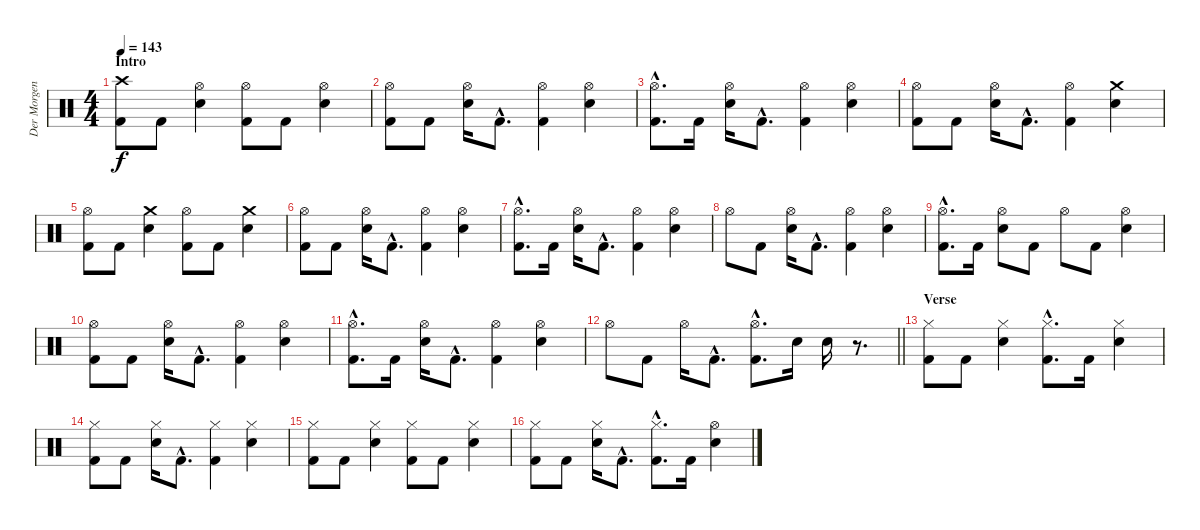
\track ("Der Morgenstern" "Der Morgen") {instrument percussion}
\staff {score}
\articulation defaults
\ts (4 4)
\section ("" "Intro")
\tempo 143
\clef neutral
\ks c
("Crash high (hit)" "Kick (hit) 2").8{dy f} "Kick (hit) 2".8 ("Hi-Hat (open)" "Electric Snare (hit)").4 ("Hi-Hat (open)" "Kick (hit) 2").8 "Kick (hit) 2".8 ("Hi-Hat (open)" "Electric Snare (hit)").4 |
("Hi-Hat (open)" "Kick (hit) 2").8 "Kick (hit) 2".8 ("Hi-Hat (open)" "Electric Snare (hit)").16 "Kick (hit) 2"{hac}.8{d} ("Hi-Hat (open)" "Kick (hit) 2").4 ("Hi-Hat (open)" "Electric Snare (hit)").4 |
("Hi-Hat (open)"{hac} "Kick (hit) 2"{hac}).8{d} "Kick (hit) 2".16 ("Hi-Hat (open)" "Electric Snare (hit)").16 "Kick (hit) 2"{hac}.8{d} ("Hi-Hat (open)" "Kick (hit) 2").4 ("Hi-Hat (open)" "Electric Snare (hit)").4 |
("Hi-Hat (open)" "Kick (hit) 2").8 "Kick (hit) 2".8 ("Hi-Hat (open)" "Electric Snare (hit)").16 "Kick (hit) 2"{hac}.8{d} ("Hi-Hat (open)" "Kick (hit) 2").4 ("Crash medium (hit)" "Electric Snare (hit)").4 |
("Hi-Hat (open)" "Kick (hit) 2").8 "Kick (hit) 2".8 ("Crash medium (hit)" "Electric Snare (hit)").4 ("Hi-Hat (open)" "Kick (hit) 2").8 "Kick (hit) 2".8 ("Crash medium (hit)" "Electric Snare (hit)").4 |
("Hi-Hat (open)" "Kick (hit) 2").8 "Kick (hit) 2".8 ("Hi-Hat (open)" "Electric Snare (hit)").16 "Kick (hit) 2"{hac}.8{d} ("Hi-Hat (open)" "Kick (hit) 2").4 ("Hi-Hat (open)" "Electric Snare (hit)").4 |
("Hi-Hat (open)"{hac} "Kick (hit) 2"{hac}).8{d} "Kick (hit) 2".16 ("Hi-Hat (open)" "Electric Snare (hit)").16 "Kick (hit) 2"{hac}.8{d} ("Hi-Hat (open)" "Kick (hit) 2").4 ("Hi-Hat (open)" "Electric Snare (hit)").4 |
"Hi-Hat (open)".8 "Kick (hit) 2".8 ("Hi-Hat (open)" "Electric Snare (hit)").16 "Kick (hit) 2"{hac}.8{d} ("Hi-Hat (open)" "Kick (hit) 2").4 ("Hi-Hat (open)" "Electric Snare (hit)").4 |
("Hi-Hat (open)"{hac} "Kick (hit) 2"{hac}).8{d} "Kick (hit) 2".16 ("Hi-Hat (open)" "Electric Snare (hit)").8 "Kick (hit) 2".8 "Hi-Hat (open)".8 "Kick (hit) 2".8 ("Hi-Hat (open)" "Electric Snare (hit)").4 |
("Hi-Hat (open)" "Kick (hit) 2").8 "Kick (hit) 2".8 ("Hi-Hat (open)" "Electric Snare (hit)").16 "Kick (hit) 2"{hac}.8{d} ("Hi-Hat (open)" "Kick (hit) 2").4 ("Hi-Hat (open)" "Electric Snare (hit)").4 |
("Hi-Hat (open)"{hac} "Kick (hit) 2"{hac}).8{d} "Kick (hit) 2".16 ("Hi-Hat (open)" "Electric Snare (hit)").16 "Kick (hit) 2"{hac}.8{d} ("Hi-Hat (open)" "Kick (hit) 2").4 ("Hi-Hat (open)" "Electric Snare (hit)").4 |
\barLineRight lightlight "Hi-Hat (open)".8 "Kick (hit) 2".8 "Hi-Hat (open)".16 "Kick (hit) 2"{hac}.8{d}
("Hi-Hat (open)"{hac} "Kick (hit) 2"{hac}).8{d} "Electric Snare (hit)".16 "Electric Snare (hit)".16 r.8{d} |
\section ("" "Verse")
("Hi-Hat (closed)" "Kick (hit) 2").8 "Kick (hit) 2".8 ("Hi-Hat (closed)" "Electric Snare (hit)").4 ("Hi-Hat (closed)"{hac} "Kick (hit) 2"{hac}).8{d} "Kick (hit) 2".16 ("Hi-Hat (closed)" "Electric Snare (hit)").4 |
("Hi-Hat (closed)" "Kick (hit) 2").8 "Kick (hit) 2".8 ("Hi-Hat (closed)" "Electric Snare (hit)").16 "Kick (hit) 2"{hac}.8{d} ("Hi-Hat (closed)" "Kick (hit) 2").4 ("Hi-Hat (closed)" "Electric Snare (hit)").4 |
("Hi-Hat (closed)" "Kick (hit) 2").8 "Kick (hit) 2".8 ("Hi-Hat (closed)" "Electric Snare (hit)").4 ("Hi-Hat (closed)" "Kick (hit) 2").8 "Kick (hit) 2".8 ("Hi-Hat (closed)" "Electric Snare (hit)").4 |
("Hi-Hat (closed)" "Kick (hit) 2").8 "Kick (hit) 2".8 ("Hi-Hat (closed)" "Electric Snare (hit)").16 "Kick (hit) 2"{hac}.8{d} ("Hi-Hat (closed)"{hac} "Kick (hit) 2"{hac}).8{d} "Kick (hit) 2".16 ("Hi-Hat (open)" "Electric Snare (hit)").4
